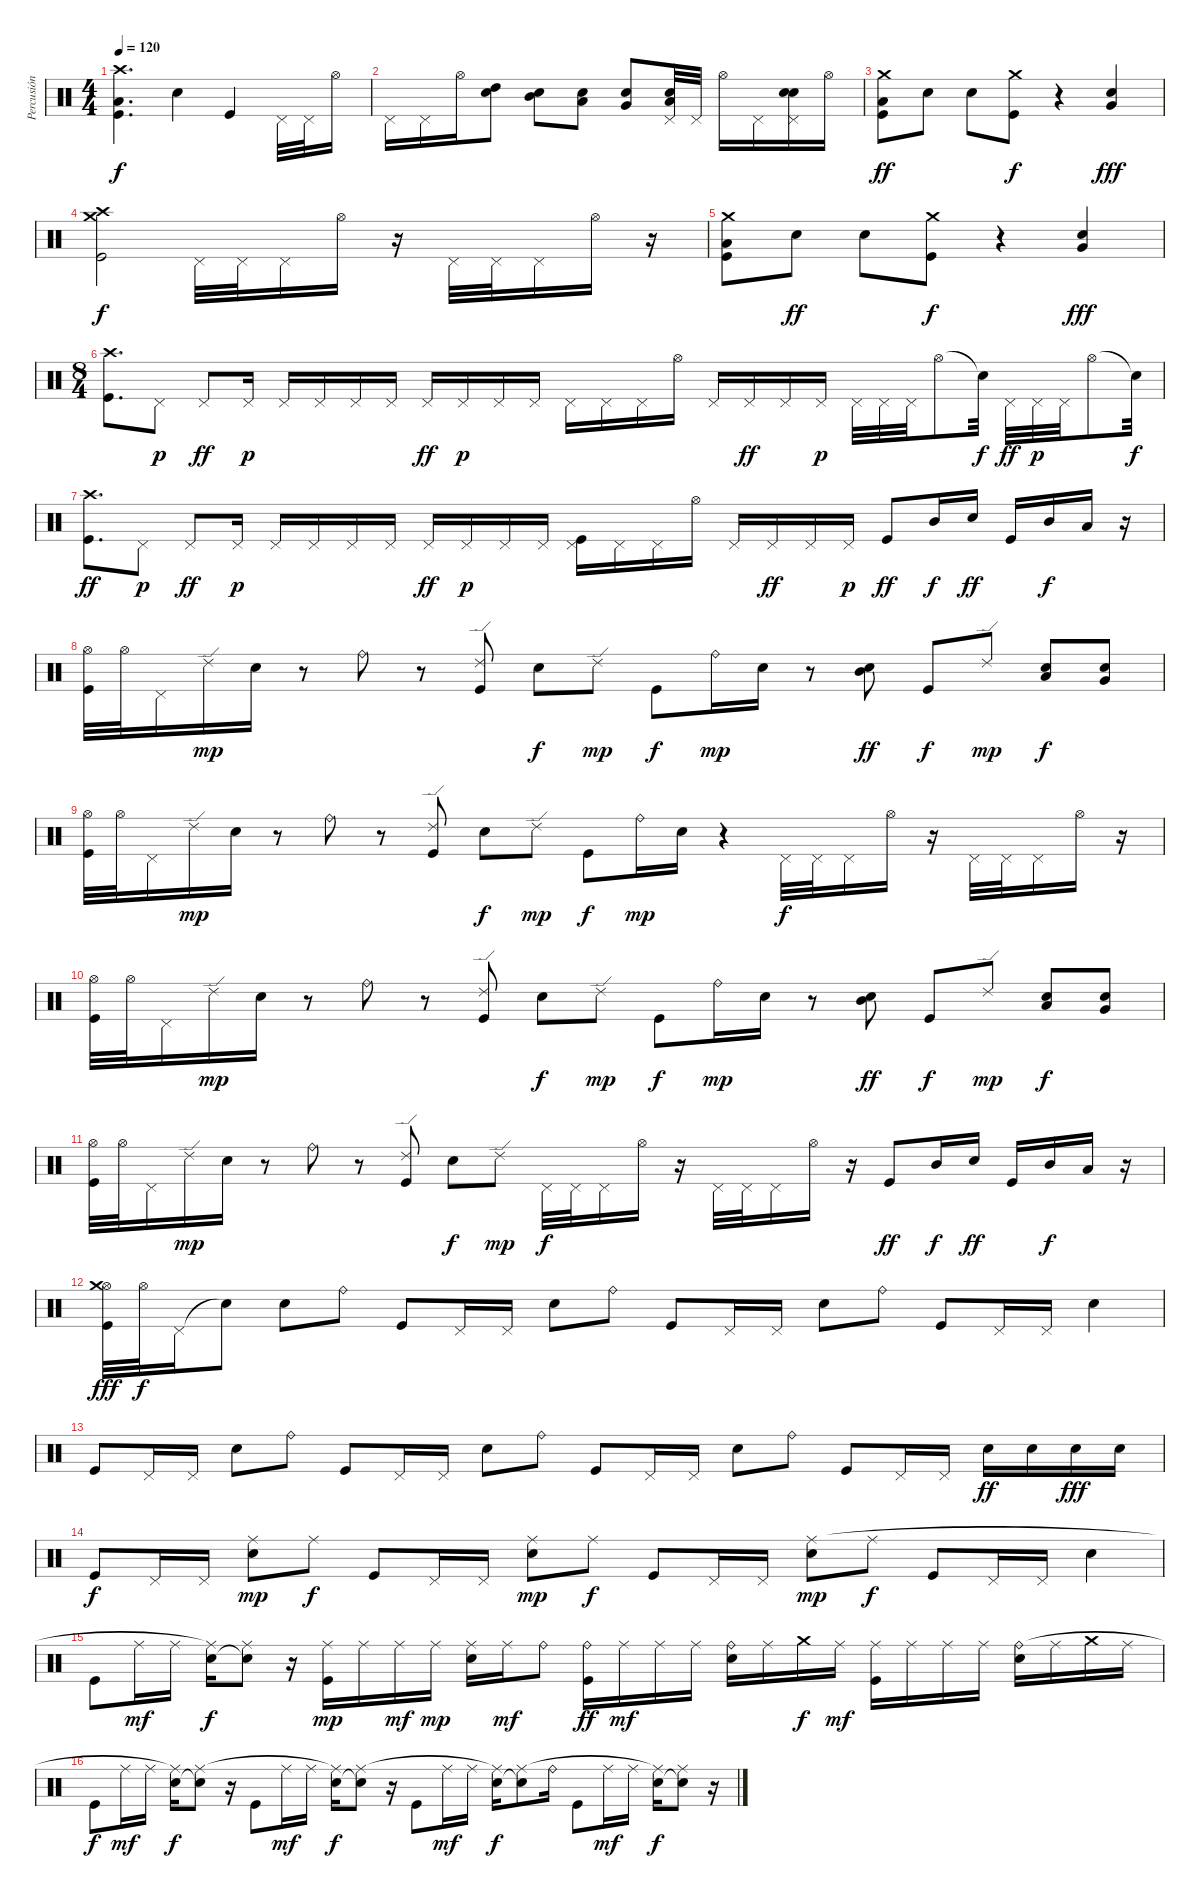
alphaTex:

\track ("Percusión" "Percusión") {instrument percussion}
\staff {score}
\articulation defaults
\ts (4 4)
\tempo 120
\clef neutral
\ks c
("Kick (hit)" "Low Tom (hit)" "Crash high (hit)").4{d dy f} "Electric Snare (hit)".4 "Kick (hit)".4 "Pedal Hi-Hat (hit)".32 "Pedal Hi-Hat (hit)".32 "Hi-Hat (open)".16 |
"Pedal Hi-Hat (hit)".16 "Pedal Hi-Hat (hit)".16 "Hi-Hat (open)".16 ("Electric Snare (hit)" "High Tom (hit)").8 ("Electric Snare (hit)" "Mid Tom (hit)").8 ("Electric Snare (hit)" "Low Tom (hit)").8 ("Electric Snare (hit)" "Very Low Tom (hit)").8 ("Electric Snare (hit)" "Low Floor Tom (hit)" "Pedal Hi-Hat (hit)").32 "Pedal Hi-Hat (hit)".32 "Hi-Hat (open)".16 "Pedal Hi-Hat (hit)".16 ("Electric Snare (hit)" "Electric Snare (hit)" "Pedal Hi-Hat (hit)").16 "Hi-Hat (open)".16 |
("Kick (hit)" "Low Tom (hit)" "Crash medium (hit)").8{dy ff} "Electric Snare (hit)".8 "Electric Snare (hit)".8 ("Kick (hit)" "Crash medium (hit)").8{dy f} r.4 ("Electric Snare (hit)" "Very Low Tom (hit)").4{dy fff} |
("Kick (hit)" "Crash high (hit)" "Crash medium (hit)").2{dy f} "Pedal Hi-Hat (hit)".32 "Pedal Hi-Hat (hit)".32 "Pedal Hi-Hat (hit)".16{beam merge} "Hi-Hat (open)".16 r.16{beam split} "Pedal Hi-Hat (hit)".32 "Pedal Hi-Hat (hit)".32 "Pedal Hi-Hat (hit)".16 "Hi-Hat (open)".16 r.16 |
("Kick (hit)" "Low Tom (hit)" "Crash medium (hit)").8 "Electric Snare (hit)".8{dy ff} "Electric Snare (hit)".8 ("Kick (hit)" "Crash medium (hit)").8{dy f} r.4 ("Electric Snare (hit)" "Very Low Tom (hit)").4{dy fff} |
\ts (8 4)
("Kick (hit)" "Crash high (hit)").8{d} "Pedal Hi-Hat (hit)".8{dy p} "Pedal Hi-Hat (hit)".8{dy ff} "Pedal Hi-Hat (hit)".16{dy p} "Pedal Hi-Hat (hit)".16 "Pedal Hi-Hat (hit)".16 "Pedal Hi-Hat (hit)".16 "Pedal Hi-Hat (hit)".16 "Pedal Hi-Hat (hit)".16{dy ff} "Pedal Hi-Hat (hit)".16{dy p} "Pedal Hi-Hat (hit)".16 "Pedal Hi-Hat (hit)".16 "Pedal Hi-Hat (hit)".16 "Pedal Hi-Hat (hit)".16 "Pedal Hi-Hat (hit)".16 "Hi-Hat (open)".16 "Pedal Hi-Hat (hit)".16 "Pedal Hi-Hat (hit)".16{dy ff} "Pedal Hi-Hat (hit)".16 "Pedal Hi-Hat (hit)".16{dy p} "Pedal Hi-Hat (hit)".32 "Pedal Hi-Hat (hit)".32 "Pedal Hi-Hat (hit)".32 "Hi-Hat (open)".8 "Snare (hit)"{t}.32{dy f} "Pedal Hi-Hat (hit)".32{dy ff} "Pedal Hi-Hat (hit)".32{dy p} "Pedal Hi-Hat (hit)".32 "Hi-Hat (open)".8 "Snare (hit)"{t}.32{dy f} |
("Kick (hit)" "Crash high (hit)").8{d dy ff} "Pedal Hi-Hat (hit)".8{dy p} "Pedal Hi-Hat (hit)".8{dy ff} "Pedal Hi-Hat (hit)".16{dy p} "Pedal Hi-Hat (hit)".16 "Pedal Hi-Hat (hit)".16 "Pedal Hi-Hat (hit)".16 "Pedal Hi-Hat (hit)".16 "Pedal Hi-Hat (hit)".16{dy ff} "Pedal Hi-Hat (hit)".16{dy p} "Pedal Hi-Hat (hit)".16 "Pedal Hi-Hat (hit)".16 ("Kick (hit)" "Pedal Hi-Hat (hit)").16 "Pedal Hi-Hat (hit)".16 "Pedal Hi-Hat (hit)".16 "Hi-Hat (open)".16 "Pedal Hi-Hat (hit)".16 "Pedal Hi-Hat (hit)".16{dy ff} "Pedal Hi-Hat (hit)".16 "Pedal Hi-Hat (hit)".16{dy p} "Kick (hit)".8{dy ff} "Mid Tom (hit)".16{dy f} "Electric Snare (hit)".16{dy ff} "Kick (hit)".16 "Mid Tom (hit)".16{dy f} "Low Tom (hit)".16 r.16 |
("Kick (hit)" "Hi-Hat (open)").32 "Hi-Hat (open)".32 "Pedal Hi-Hat (hit)".16 "Ride (edge) 2".16{dy mp} "Electric Snare (hit)".16 r.8 "Ride (bell)".8 r.8 ("Kick (hit)" "Ride (edge) 2").8 "Electric Snare (hit)".8{dy f} "Ride (edge) 2".8{dy mp} "Kick (hit)".8{dy f} "Ride (bell)".16{dy mp} "Electric Snare (hit)".16 r.8 ("Electric Snare (hit)" "Mid Tom (hit)").8{dy ff} "Kick (hit)".8{dy f} "Ride (edge) 2".8{dy mp} ("Electric Snare (hit)" "Low Tom (hit)").8{dy f} ("Electric Snare (hit)" "Very Low Tom (hit)").8 |
("Kick (hit)" "Hi-Hat (open)").32 "Hi-Hat (open)".32 "Pedal Hi-Hat (hit)".16 "Ride (edge) 2".16{dy mp} "Electric Snare (hit)".16 r.8 "Ride (bell)".8 r.8 ("Kick (hit)" "Ride (edge) 2").8 "Electric Snare (hit)".8{dy f} "Ride (edge) 2".8{dy mp} "Kick (hit)".8{dy f} "Ride (bell)".16{dy mp} "Electric Snare (hit)".16 r.4 "Pedal Hi-Hat (hit)".32{dy f} "Pedal Hi-Hat (hit)".32 "Pedal Hi-Hat (hit)".16{beam merge} "Hi-Hat (open)".16 r.16{beam split} "Pedal Hi-Hat (hit)".32 "Pedal Hi-Hat (hit)".32 "Pedal Hi-Hat (hit)".16 "Hi-Hat (open)".16 r.16 |
("Kick (hit)" "Hi-Hat (open)").32 "Hi-Hat (open)".32 "Pedal Hi-Hat (hit)".16 "Ride (edge) 2".16{dy mp} "Electric Snare (hit)".16 r.8 "Ride (bell)".8 r.8 ("Kick (hit)" "Ride (edge) 2").8 "Electric Snare (hit)".8{dy f} "Ride (edge) 2".8{dy mp} "Kick (hit)".8{dy f} "Ride (bell)".16{dy mp} "Electric Snare (hit)".16 r.8 ("Electric Snare (hit)" "Mid Tom (hit)").8{dy ff} "Kick (hit)".8{dy f} "Ride (edge) 2".8{dy mp} ("Electric Snare (hit)" "Low Tom (hit)").8{dy f} ("Electric Snare (hit)" "Very Low Tom (hit)").8 |
("Kick (hit)" "Hi-Hat (open)").32 "Hi-Hat (open)".32 "Pedal Hi-Hat (hit)".16 "Ride (edge) 2".16{dy mp} "Electric Snare (hit)".16 r.8 "Ride (bell)".8 r.8 ("Kick (hit)" "Ride (edge) 2").8 "Electric Snare (hit)".8{dy f} "Ride (edge) 2".8{dy mp} "Pedal Hi-Hat (hit)".32{dy f} "Pedal Hi-Hat (hit)".32 "Pedal Hi-Hat (hit)".16{beam merge} "Hi-Hat (open)".16 r.16{beam split} "Pedal Hi-Hat (hit)".32 "Pedal Hi-Hat (hit)".32 "Pedal Hi-Hat (hit)".16 "Hi-Hat (open)".16 r.16 "Kick (hit)".8{dy ff} "Mid Tom (hit)".16{dy f} "Electric Snare (hit)".16{dy ff} "Kick (hit)".16 "Mid Tom (hit)".16{dy f} "Low Tom (hit)".16 r.16 |
("Kick (hit)" "Hi-Hat (open)" "Crash medium (hit)").32{dy fff} "Hi-Hat (open)".32{dy f} "Pedal Hi-Hat (hit)".16 "Snare (hit)"{t}.8 "Electric Snare (hit)".8 "Ride (bell)".8 "Kick (hit)".8 "Pedal Hi-Hat (hit)".16 "Pedal Hi-Hat (hit)".16 "Electric Snare (hit)".8 "Ride (bell)".8 "Kick (hit)".8 "Pedal Hi-Hat (hit)".16 "Pedal Hi-Hat (hit)".16 "Electric Snare (hit)".8 "Ride (bell)".8 "Kick (hit)".8 "Pedal Hi-Hat (hit)".16 "Pedal Hi-Hat (hit)".16 "Electric Snare (hit)".4 |
"Kick (hit)".8 "Pedal Hi-Hat (hit)".16 "Pedal Hi-Hat (hit)".16 "Electric Snare (hit)".8 "Ride (bell)".8 "Kick (hit)".8 "Pedal Hi-Hat (hit)".16 "Pedal Hi-Hat (hit)".16 "Electric Snare (hit)".8 "Ride (bell)".8 "Kick (hit)".8 "Pedal Hi-Hat (hit)".16 "Pedal Hi-Hat (hit)".16 "Electric Snare (hit)".8 "Ride (bell)".8 "Kick (hit)".8 "Pedal Hi-Hat (hit)".16 "Pedal Hi-Hat (hit)".16 "Electric Snare (hit)".16{dy ff} "Electric Snare (hit)".16 "Electric Snare (hit)".16{dy fff} "Electric Snare (hit)".16 |
"Kick (hit)".8{dy f} "Pedal Hi-Hat (hit)".16 "Pedal Hi-Hat (hit)".16 ("Electric Snare (hit)" "Ride (middle)").8{dy mp} "Ride (middle)".8{dy f} "Kick (hit)".8 "Pedal Hi-Hat (hit)".16 "Pedal Hi-Hat (hit)".16 ("Electric Snare (hit)" "Ride (middle)").8{dy mp} "Ride (middle)".8{dy f} "Kick (hit)".8 "Pedal Hi-Hat (hit)".16 "Pedal Hi-Hat (hit)".16 ("Electric Snare (hit)" "Ride (middle)").8{dy mp} "Ride (middle)".8{dy f} "Kick (hit)".8 "Pedal Hi-Hat (hit)".16 "Pedal Hi-Hat (hit)".16 "Electric Snare (hit)".4 |
"Kick (hit)".8 "Ride (middle)".16{dy mf} "Ride (middle)".16 ("Electric Snare (hit)" "Ride (middle)"{t}).16{dy f} ("Snare (hit)"{t} "Ride (middle)").8 r.16 ("Kick (hit)" "Ride (middle)").16{dy mp} "Ride (middle)".16 "Ride (middle)".16{dy mf} "Ride (middle)".16{dy mp} ("Electric Snare (hit)" "Ride (middle)").16 "Ride (middle)".16{dy mf} "Ride (bell)".8 ("Kick (hit)" "Ride (bell)").16{dy ff} "Ride (middle)".16{dy mf} "Ride (middle)".16 "Ride (middle)".16 ("Electric Snare (hit)" "Ride (bell)").16 "Ride (middle)".16 "Crash medium (hit)".16{dy f} "Ride (middle)".16{dy mf} ("Kick (hit)" "Ride (middle)").16 "Ride (middle)".16 "Ride (middle)".16 "Ride (middle)".16 ("Electric Snare (hit)" "Ride (bell)").16 "Ride (middle)".16 "Crash medium (hit)".16 "Ride (middle)".16 |
"Kick (hit)".8{dy f} "Ride (middle)".16{dy mf} "Ride (middle)".16 ("Electric Snare (hit)" "Ride (middle)"{t}).16{dy f} ("Snare (hit)"{t} "Ride (middle)").8 r.16 "Kick (hit)".8 "Ride (middle)".16{dy mf} "Ride (middle)".16 ("Electric Snare (hit)" "Ride (middle)"{t}).16{dy f} ("Snare (hit)"{t} "Ride (middle)").8 r.16 "Kick (hit)".8 "Ride (middle)".16{dy mf} "Ride (middle)".16 ("Electric Snare (hit)" "Ride (middle)"{t}).16{dy f} ("Snare (hit)"{t} "Ride (middle)").8 "Ride (bell)".16 "Kick (hit)".8 "Ride (middle)".16{dy mf} "Ride (middle)".16 ("Electric Snare (hit)" "Ride (middle)"{t}).16{dy f} ("Snare (hit)"{t} "Ride (middle)").8 r.16
